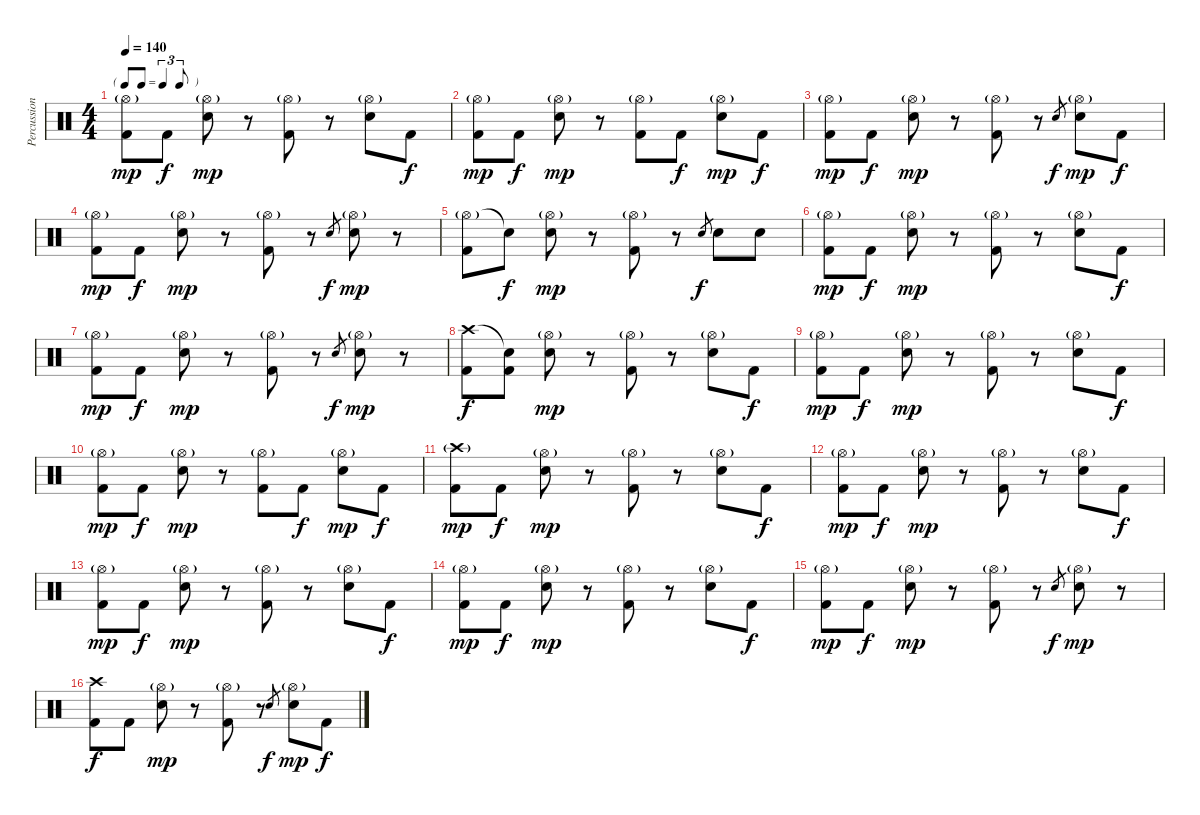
\track ("Percussion" "Percussion") {instrument percussion}
\staff {score}
\articulation defaults
\ts (4 4)
\tf triplet8th
\tempo 140
\clef neutral
\ks c
("Hi-Hat (open)"{g} "Kick (hit) 2").8{dy mp} "Kick (hit) 2".8{dy f} ("Hi-Hat (open)"{g} "Snare (hit) 2").8{dy mp} r.8 ("Hi-Hat (open)"{g} "Kick (hit) 2").8 r.8 ("Hi-Hat (open)"{g} "Snare (hit) 2").8 "Kick (hit) 2".8{dy f} |
("Hi-Hat (open)"{g} "Kick (hit) 2").8{dy mp} "Kick (hit) 2".8{dy f} ("Hi-Hat (open)"{g} "Snare (hit) 2").8{dy mp} r.8 ("Hi-Hat (open)"{g} "Kick (hit) 2").8 "Kick (hit) 2".8{dy f} ("Hi-Hat (open)"{g} "Snare (hit) 2").8{dy mp} "Kick (hit) 2".8{dy f} |
("Hi-Hat (open)"{g} "Kick (hit) 2").8{dy mp} "Kick (hit) 2".8{dy f} ("Hi-Hat (open)"{g} "Snare (hit) 2").8{dy mp} r.8 ("Hi-Hat (open)"{g} "Kick (hit) 2").8 r.8 "Snare (hit) 2".8{gr dy f} ("Hi-Hat (open)"{g} "Snare (hit) 2").8{dy mp} "Kick (hit) 2".8{dy f} |
("Hi-Hat (open)"{g} "Kick (hit) 2").8{dy mp} "Kick (hit) 2".8{dy f} ("Hi-Hat (open)"{g} "Snare (hit) 2").8{dy mp} r.8 ("Hi-Hat (open)"{g} "Kick (hit) 2").8 r.8 "Snare (hit) 2".8{gr dy f} ("Hi-Hat (open)"{g} "Snare (hit) 2").8{dy mp} r.8 |
("Hi-Hat (open)"{g} "Kick (hit) 2").8 "Snare (hit)"{t}.8{dy f} ("Hi-Hat (open)"{g} "Snare (hit) 2").8{dy mp} r.8 ("Hi-Hat (open)"{g} "Kick (hit) 2").8 r.8 "Snare (hit) 2".8{gr dy f} "Snare (hit) 2".8 "Snare (hit) 2".8 |
("Hi-Hat (open)"{g} "Kick (hit) 2").8{dy mp} "Kick (hit) 2".8{dy f} ("Hi-Hat (open)"{g} "Snare (hit) 2").8{dy mp} r.8 ("Hi-Hat (open)"{g} "Kick (hit) 2").8 r.8 ("Hi-Hat (open)"{g} "Snare (hit) 2").8 "Kick (hit) 2".8{dy f} |
("Hi-Hat (open)"{g} "Kick (hit) 2").8{dy mp} "Kick (hit) 2".8{dy f} ("Hi-Hat (open)"{g} "Snare (hit) 2").8{dy mp} r.8 ("Hi-Hat (open)"{g} "Kick (hit) 2").8 r.8 "Snare (hit) 2".8{gr dy f} ("Hi-Hat (open)"{g} "Snare (hit) 2").8{dy mp} r.8 |
("Crash high (hit)" "Kick (hit) 2").8{dy f} ("Snare (hit)"{t} "Kick (hit) 2").8 ("Hi-Hat (open)"{g} "Snare (hit) 2").8{dy mp} r.8 ("Hi-Hat (open)"{g} "Kick (hit) 2").8 r.8 ("Hi-Hat (open)"{g} "Snare (hit) 2").8 "Kick (hit) 2".8{dy f} |
("Hi-Hat (open)"{g} "Kick (hit) 2").8{dy mp} "Kick (hit) 2".8{dy f} ("Hi-Hat (open)"{g} "Snare (hit) 2").8{dy mp} r.8 ("Hi-Hat (open)"{g} "Kick (hit) 2").8 r.8 ("Hi-Hat (open)"{g} "Snare (hit) 2").8 "Kick (hit) 2".8{dy f} |
("Hi-Hat (open)"{g} "Kick (hit) 2").8{dy mp} "Kick (hit) 2".8{dy f} ("Hi-Hat (open)"{g} "Snare (hit) 2").8{dy mp} r.8 ("Hi-Hat (open)"{g} "Kick (hit) 2").8 "Kick (hit) 2".8{dy f} ("Hi-Hat (open)"{g} "Snare (hit) 2").8{dy mp} "Kick (hit) 2".8{dy f} |
("Crash high (hit)"{g} "Kick (hit) 2").8{dy mp} "Kick (hit) 2".8{dy f} ("Hi-Hat (open)"{g} "Snare (hit) 2").8{dy mp} r.8 ("Hi-Hat (open)"{g} "Kick (hit) 2").8 r.8 ("Hi-Hat (open)"{g} "Snare (hit) 2").8 "Kick (hit) 2".8{dy f} |
("Hi-Hat (open)"{g} "Kick (hit) 2").8{dy mp} "Kick (hit) 2".8{dy f} ("Hi-Hat (open)"{g} "Snare (hit) 2").8{dy mp} r.8 ("Hi-Hat (open)"{g} "Kick (hit) 2").8 r.8 ("Hi-Hat (open)"{g} "Snare (hit) 2").8 "Kick (hit) 2".8{dy f} |
("Hi-Hat (open)"{g} "Kick (hit) 2").8{dy mp} "Kick (hit) 2".8{dy f} ("Hi-Hat (open)"{g} "Snare (hit) 2").8{dy mp} r.8 ("Hi-Hat (open)"{g} "Kick (hit) 2").8 r.8 ("Hi-Hat (open)"{g} "Snare (hit) 2").8 "Kick (hit) 2".8{dy f} |
("Hi-Hat (open)"{g} "Kick (hit) 2").8{dy mp} "Kick (hit) 2".8{dy f} ("Hi-Hat (open)"{g} "Snare (hit) 2").8{dy mp} r.8 ("Hi-Hat (open)"{g} "Kick (hit) 2").8 r.8 ("Hi-Hat (open)"{g} "Snare (hit) 2").8 "Kick (hit) 2".8{dy f} |
("Hi-Hat (open)"{g} "Kick (hit) 2").8{dy mp} "Kick (hit) 2".8{dy f} ("Hi-Hat (open)"{g} "Snare (hit) 2").8{dy mp} r.8 ("Hi-Hat (open)"{g} "Kick (hit) 2").8 r.8 "Snare (hit) 2".8{gr dy f} ("Hi-Hat (open)"{g} "Snare (hit) 2").8{dy mp} r.8 |
("Crash high (hit)" "Kick (hit) 2").8{dy f} "Kick (hit) 2".8 ("Hi-Hat (open)"{g} "Snare (hit) 2").8{dy mp} r.8 ("Hi-Hat (open)"{g} "Kick (hit) 2").8 r.8 "Snare (hit) 2".8{gr dy f} ("Hi-Hat (open)"{g} "Snare (hit) 2").8{dy mp} "Kick (hit) 2".8{dy f}
